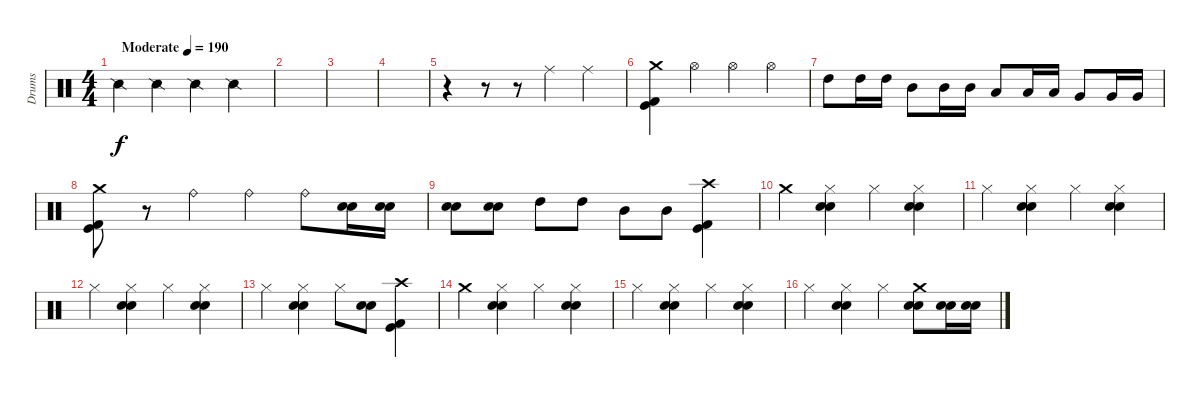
\track ("Drums" "Drums") {instrument percussion}
\staff {score}
\articulation defaults
\ts (4 4)
\tempo (190 "Moderate")
\clef neutral
\ks c "Snare (side stick) 2".4{dy f} "Snare (side stick) 2".4 "Snare (side stick) 2".4 "Snare (side stick) 2".4
|
|
|
|
r.4 r.8 r.8 "Ride (middle)".4 "Ride (middle)".4 |
("Kick (hit) 2" "Kick (hit)" "Crash medium (hit)").4 "Hi-Hat (open)".4 "Hi-Hat (open)".4 "Hi-Hat (open)".4 |
"High Tom (hit)".8 "High Tom (hit)".16 "High Tom (hit)".16 "Mid Tom (hit)".8 "Mid Tom (hit)".16 "Mid Tom (hit)".16 "Low Tom (hit)".8 "Low Tom (hit)".16 "Low Tom (hit)".16 "Very Low Tom (hit)".8 "Very Low Tom (hit)".16 "Very Low Tom (hit)".16 |
("Crash medium (hit)" "Kick (hit) 2" "Kick (hit)").8 r.8 "Ride (bell)".4 "Ride (bell)".4 "Ride (bell)".8 ("Electric Snare (hit)" "Snare (hit) 2").16 ("Electric Snare (hit)" "Snare (hit) 2").16 |
("Electric Snare (hit)" "Snare (hit) 2").8 ("Electric Snare (hit)" "Snare (hit) 2").8 "High Tom (hit)".8 "High Tom (hit)".8 "Mid Tom (hit)".8 "Mid Tom (hit)".8 ("Kick (hit) 2" "Kick (hit)" "Crash high (hit)").4 |
"Crash medium (hit)".4 ("Hi-Hat (closed)" "Electric Snare (hit)" "Snare (hit) 2").4 "Hi-Hat (closed)".4 ("Hi-Hat (closed)" "Electric Snare (hit)" "Snare (hit) 2").4 |
"Hi-Hat (closed)".4 ("Hi-Hat (closed)" "Electric Snare (hit)" "Snare (hit) 2").4 "Hi-Hat (closed)".4 ("Hi-Hat (closed)" "Electric Snare (hit)" "Snare (hit) 2").4 |
"Hi-Hat (closed)".4 ("Hi-Hat (closed)" "Electric Snare (hit)" "Snare (hit) 2").4 "Hi-Hat (closed)".4 ("Hi-Hat (closed)" "Electric Snare (hit)" "Snare (hit) 2").4 |
"Hi-Hat (closed)".4 ("Hi-Hat (closed)" "Electric Snare (hit)" "Snare (hit) 2").4 "Hi-Hat (closed)".8 ("Electric Snare (hit)" "Snare (hit) 2").8 ("Crash high (hit)" "Kick (hit) 2" "Kick (hit)").4 |
"Crash medium (hit)".4 ("Hi-Hat (closed)" "Electric Snare (hit)" "Snare (hit) 2").4 "Hi-Hat (closed)".4 ("Hi-Hat (closed)" "Electric Snare (hit)" "Snare (hit) 2").4 |
"Hi-Hat (closed)".4 ("Hi-Hat (closed)" "Electric Snare (hit)" "Snare (hit) 2").4 "Hi-Hat (closed)".4 ("Hi-Hat (closed)" "Electric Snare (hit)" "Snare (hit) 2").4 |
"Hi-Hat (closed)".4 ("Hi-Hat (closed)" "Electric Snare (hit)" "Snare (hit) 2").4 "Hi-Hat (closed)".4 ("Crash medium (hit)" "Electric Snare (hit)" "Snare (hit) 2").8 ("Electric Snare (hit)" "Snare (hit) 2").16 ("Electric Snare (hit)" "Snare (hit) 2").16
